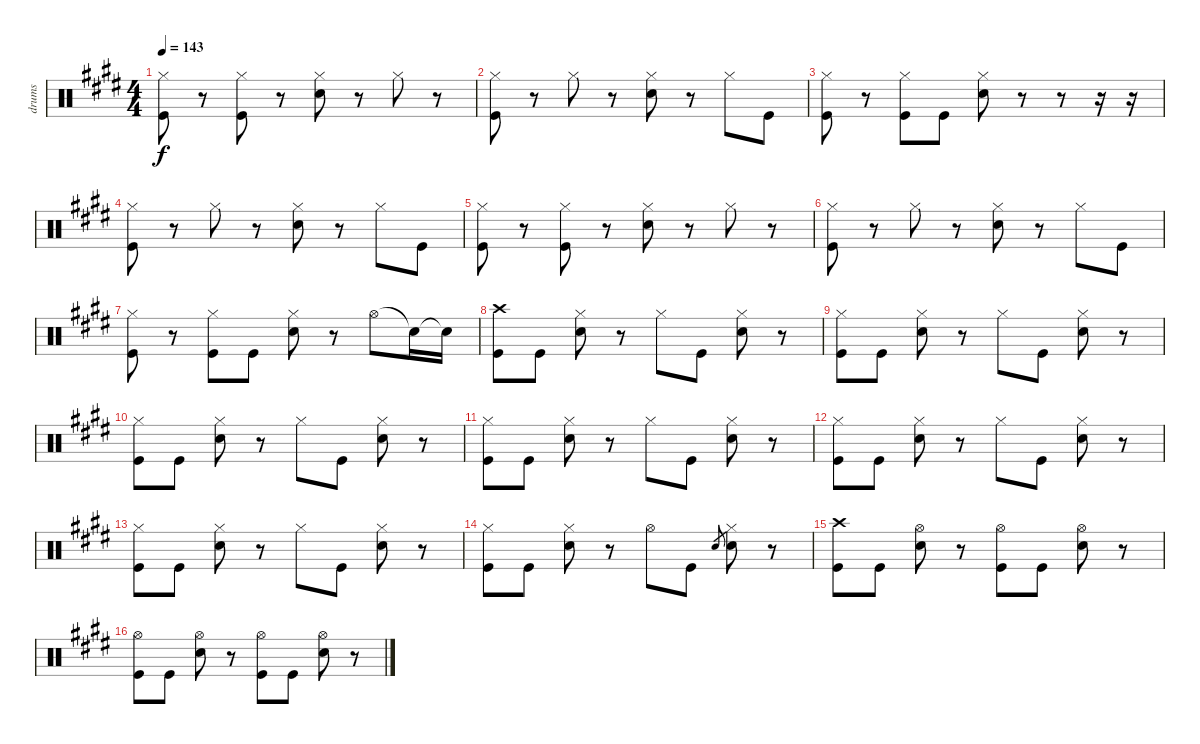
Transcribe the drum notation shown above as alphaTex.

\track ("drums" "drums") {instrument percussion}
\staff {score}
\articulation defaults
\ts (4 4)
\tempo 143
\clef neutral
\ks c#minor
("Hi-Hat (closed)" "Kick (hit)").8{dy f} r.8 ("Hi-Hat (closed)" "Kick (hit)").8 r.8 ("Hi-Hat (closed)" "Electric Snare (hit)").8 r.8 "Hi-Hat (closed)".8 r.8 |
("Hi-Hat (closed)" "Kick (hit)").8 r.8 "Hi-Hat (closed)".8 r.8 ("Hi-Hat (closed)" "Electric Snare (hit)").8 r.8 "Hi-Hat (closed)".8 "Kick (hit)".8 |
("Hi-Hat (closed)" "Kick (hit)").8 r.8 ("Hi-Hat (closed)" "Kick (hit)").8 "Kick (hit)".8 ("Hi-Hat (closed)" "Electric Snare (hit)").8 r.8 r.8 r.16 r.16 |
("Hi-Hat (closed)" "Kick (hit)").8 r.8 "Hi-Hat (closed)".8 r.8 ("Hi-Hat (closed)" "Electric Snare (hit)").8 r.8 "Hi-Hat (closed)".8 "Kick (hit)".8 |
("Hi-Hat (closed)" "Kick (hit)").8 r.8 ("Hi-Hat (closed)" "Kick (hit)").8 r.8 ("Hi-Hat (closed)" "Electric Snare (hit)").8 r.8 "Hi-Hat (closed)".8 r.8 |
("Hi-Hat (closed)" "Kick (hit)").8 r.8 "Hi-Hat (closed)".8 r.8 ("Hi-Hat (closed)" "Electric Snare (hit)").8 r.8 "Hi-Hat (closed)".8 "Kick (hit)".8 |
("Hi-Hat (closed)" "Kick (hit)").8 r.8 ("Hi-Hat (closed)" "Kick (hit)").8 "Kick (hit)".8 ("Hi-Hat (closed)" "Electric Snare (hit)").8 r.8 "Hi-Hat (open)".8 "Snare (hit)"{t}.16 "Snare (hit)"{t}.16 |
("Crash high (hit)" "Kick (hit)").8 "Kick (hit)".8 ("Hi-Hat (closed)" "Electric Snare (hit)").8 r.8 "Hi-Hat (closed)".8 "Kick (hit)".8 ("Hi-Hat (closed)" "Electric Snare (hit)").8 r.8 |
("Hi-Hat (closed)" "Kick (hit)").8 "Kick (hit)".8 ("Hi-Hat (closed)" "Electric Snare (hit)").8 r.8 "Hi-Hat (closed)".8 "Kick (hit)".8 ("Hi-Hat (closed)" "Electric Snare (hit)").8 r.8 |
("Hi-Hat (closed)" "Kick (hit)").8 "Kick (hit)".8 ("Hi-Hat (closed)" "Electric Snare (hit)").8 r.8 "Hi-Hat (closed)".8 "Kick (hit)".8 ("Hi-Hat (closed)" "Electric Snare (hit)").8 r.8 |
("Hi-Hat (closed)" "Kick (hit)").8 "Kick (hit)".8 ("Hi-Hat (closed)" "Electric Snare (hit)").8 r.8 "Hi-Hat (closed)".8 "Kick (hit)".8 ("Hi-Hat (closed)" "Electric Snare (hit)").8 r.8 |
("Hi-Hat (closed)" "Kick (hit)").8 "Kick (hit)".8 ("Hi-Hat (closed)" "Electric Snare (hit)").8 r.8 "Hi-Hat (closed)".8 "Kick (hit)".8 ("Hi-Hat (closed)" "Electric Snare (hit)").8 r.8 |
("Hi-Hat (closed)" "Kick (hit)").8 "Kick (hit)".8 ("Hi-Hat (closed)" "Electric Snare (hit)").8 r.8 "Hi-Hat (closed)".8 "Kick (hit)".8 ("Hi-Hat (closed)" "Electric Snare (hit)").8 r.8 |
("Hi-Hat (closed)" "Kick (hit)").8 "Kick (hit)".8 ("Hi-Hat (closed)" "Electric Snare (hit)").8 r.8 "Hi-Hat (open)".8 "Kick (hit)".8 "Electric Snare (hit)".8{gr} ("Hi-Hat (closed)" "Electric Snare (hit)").8 r.8 |
("Crash high (hit)" "Kick (hit)").8 "Kick (hit)".8 ("Hi-Hat (open)" "Electric Snare (hit)").8 r.8 ("Hi-Hat (open)" "Kick (hit)").8 "Kick (hit)".8 ("Hi-Hat (open)" "Electric Snare (hit)").8 r.8 |
("Hi-Hat (open)" "Kick (hit)").8 "Kick (hit)".8 ("Hi-Hat (open)" "Electric Snare (hit)").8 r.8 ("Hi-Hat (open)" "Kick (hit)").8 "Kick (hit)".8 ("Hi-Hat (open)" "Electric Snare (hit)").8 r.8
